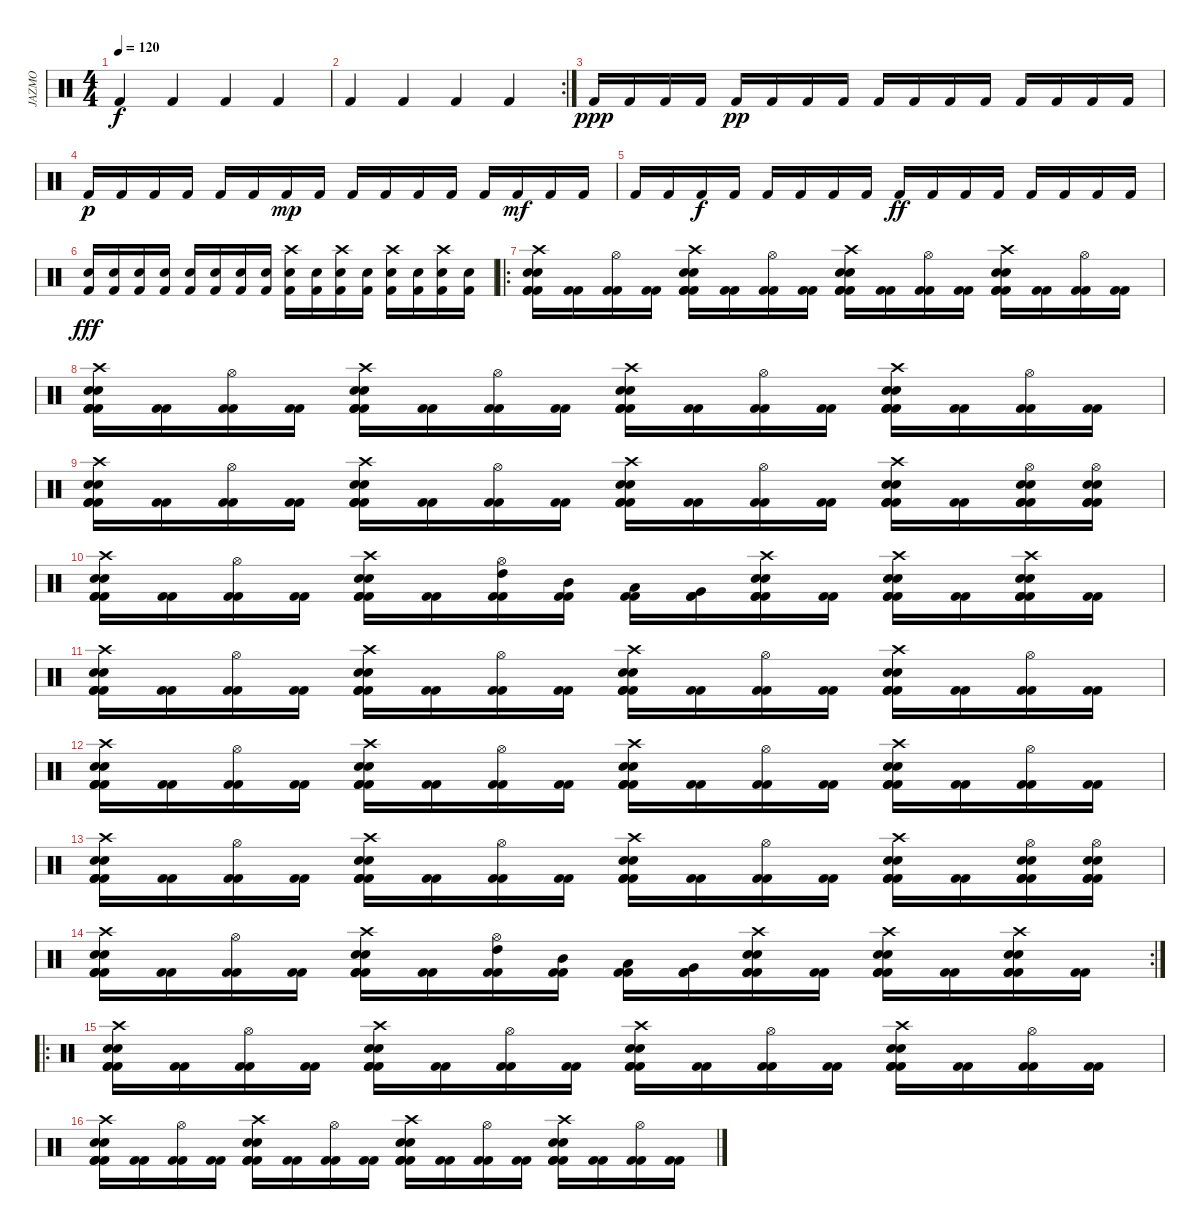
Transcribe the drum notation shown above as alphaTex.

\track ("JAZMO" "JAZMO") {instrument percussion}
\staff {score}
\articulation defaults
\ts (4 4)
\tempo 120
\clef neutral
\ks c "Kick (hit) 2".4{dy f} "Kick (hit) 2".4 "Kick (hit) 2".4 "Kick (hit) 2".4
|
\rc 2 "Kick (hit) 2".4 "Kick (hit) 2".4 "Kick (hit) 2".4 "Kick (hit) 2".4
|
"Kick (hit) 2".16{dy ppp} "Kick (hit) 2".16 "Kick (hit) 2".16 "Kick (hit) 2".16 "Kick (hit) 2".16{dy pp} "Kick (hit) 2".16 "Kick (hit) 2".16 "Kick (hit) 2".16 "Kick (hit) 2".16 "Kick (hit) 2".16 "Kick (hit) 2".16 "Kick (hit) 2".16 "Kick (hit) 2".16 "Kick (hit) 2".16 "Kick (hit) 2".16 "Kick (hit) 2".16 |
"Kick (hit) 2".16{dy p} "Kick (hit) 2".16 "Kick (hit) 2".16 "Kick (hit) 2".16 "Kick (hit) 2".16 "Kick (hit) 2".16 "Kick (hit) 2".16{dy mp} "Kick (hit) 2".16 "Kick (hit) 2".16 "Kick (hit) 2".16 "Kick (hit) 2".16 "Kick (hit) 2".16 "Kick (hit) 2".16 "Kick (hit) 2".16{dy mf} "Kick (hit) 2".16 "Kick (hit) 2".16 |
"Kick (hit) 2".16 "Kick (hit) 2".16 "Kick (hit) 2".16{dy f} "Kick (hit) 2".16 "Kick (hit) 2".16 "Kick (hit) 2".16 "Kick (hit) 2".16 "Kick (hit) 2".16 "Kick (hit) 2".16{dy ff} "Kick (hit) 2".16 "Kick (hit) 2".16 "Kick (hit) 2".16 "Kick (hit) 2".16 "Kick (hit) 2".16 "Kick (hit) 2".16 "Kick (hit) 2".16 |
("Electric Snare (hit)" "Kick (hit) 2").16{dy fff} ("Electric Snare (hit)" "Kick (hit) 2").16 ("Electric Snare (hit)" "Kick (hit) 2").16 ("Electric Snare (hit)" "Kick (hit) 2").16 ("Electric Snare (hit)" "Kick (hit) 2").16 ("Electric Snare (hit)" "Kick (hit) 2").16 ("Electric Snare (hit)" "Kick (hit) 2").16 ("Electric Snare (hit)" "Kick (hit) 2").16 ("Crash high (hit)" "Electric Snare (hit)" "Kick (hit) 2").16 ("Electric Snare (hit)" "Kick (hit) 2").16 ("Crash high (hit)" "Electric Snare (hit)" "Kick (hit) 2").16 ("Electric Snare (hit)" "Kick (hit) 2").16 ("Crash high (hit)" "Electric Snare (hit)" "Kick (hit) 2").16 ("Electric Snare (hit)" "Kick (hit) 2").16 ("Crash high (hit)" "Electric Snare (hit)" "Kick (hit) 2").16 ("Electric Snare (hit)" "Kick (hit) 2").16 |
\ro
("Electric Snare (hit)" "Kick (hit) 2" "Crash high (hit)" "Electric Snare (hit)" "Kick (hit) 2" "Kick (hit) 2").16 ("Kick (hit) 2" "Kick (hit) 2").16 ("Hi-Hat (open)" "Kick (hit) 2" "Kick (hit) 2").16 ("Kick (hit) 2" "Kick (hit) 2").16 ("Electric Snare (hit)" "Kick (hit) 2" "Crash high (hit)" "Electric Snare (hit)" "Kick (hit) 2" "Kick (hit) 2").16 ("Kick (hit) 2" "Kick (hit) 2").16 ("Hi-Hat (open)" "Kick (hit) 2" "Kick (hit) 2").16 ("Kick (hit) 2" "Kick (hit) 2").16 ("Electric Snare (hit)" "Kick (hit) 2" "Crash high (hit)" "Electric Snare (hit)" "Kick (hit) 2" "Kick (hit) 2").16 ("Kick (hit) 2" "Kick (hit) 2").16 ("Hi-Hat (open)" "Kick (hit) 2" "Kick (hit) 2").16 ("Kick (hit) 2" "Kick (hit) 2").16 ("Electric Snare (hit)" "Kick (hit) 2" "Crash high (hit)" "Electric Snare (hit)" "Kick (hit) 2" "Kick (hit) 2").16 ("Kick (hit) 2" "Kick (hit) 2").16 ("Hi-Hat (open)" "Kick (hit) 2" "Kick (hit) 2").16 ("Kick (hit) 2" "Kick (hit) 2").16 |
("Electric Snare (hit)" "Kick (hit) 2" "Crash high (hit)" "Electric Snare (hit)" "Kick (hit) 2" "Kick (hit) 2").16 ("Kick (hit) 2" "Kick (hit) 2").16 ("Hi-Hat (open)" "Kick (hit) 2" "Kick (hit) 2").16 ("Kick (hit) 2" "Kick (hit) 2").16 ("Electric Snare (hit)" "Kick (hit) 2" "Crash high (hit)" "Electric Snare (hit)" "Kick (hit) 2" "Kick (hit) 2").16 ("Kick (hit) 2" "Kick (hit) 2").16 ("Hi-Hat (open)" "Kick (hit) 2" "Kick (hit) 2").16 ("Kick (hit) 2" "Kick (hit) 2").16 ("Electric Snare (hit)" "Kick (hit) 2" "Crash high (hit)" "Electric Snare (hit)" "Kick (hit) 2" "Kick (hit) 2").16 ("Kick (hit) 2" "Kick (hit) 2").16 ("Hi-Hat (open)" "Kick (hit) 2" "Kick (hit) 2").16 ("Kick (hit) 2" "Kick (hit) 2").16 ("Electric Snare (hit)" "Kick (hit) 2" "Crash high (hit)" "Electric Snare (hit)" "Kick (hit) 2" "Kick (hit) 2").16 ("Kick (hit) 2" "Kick (hit) 2").16 ("Hi-Hat (open)" "Kick (hit) 2" "Kick (hit) 2").16 ("Kick (hit) 2" "Kick (hit) 2").16 |
("Electric Snare (hit)" "Kick (hit) 2" "Crash high (hit)" "Electric Snare (hit)" "Kick (hit) 2" "Kick (hit) 2").16 ("Kick (hit) 2" "Kick (hit) 2").16 ("Hi-Hat (open)" "Kick (hit) 2" "Kick (hit) 2").16 ("Kick (hit) 2" "Kick (hit) 2").16 ("Electric Snare (hit)" "Kick (hit) 2" "Crash high (hit)" "Electric Snare (hit)" "Kick (hit) 2" "Kick (hit) 2").16 ("Kick (hit) 2" "Kick (hit) 2").16 ("Hi-Hat (open)" "Kick (hit) 2" "Kick (hit) 2").16 ("Kick (hit) 2" "Kick (hit) 2").16 ("Electric Snare (hit)" "Kick (hit) 2" "Crash high (hit)" "Electric Snare (hit)" "Kick (hit) 2" "Kick (hit) 2").16 ("Kick (hit) 2" "Kick (hit) 2").16 ("Hi-Hat (open)" "Kick (hit) 2" "Kick (hit) 2").16 ("Kick (hit) 2" "Kick (hit) 2").16 ("Electric Snare (hit)" "Kick (hit) 2" "Crash high (hit)" "Electric Snare (hit)" "Kick (hit) 2" "Kick (hit) 2").16 ("Kick (hit) 2" "Kick (hit) 2").16 ("Electric Snare (hit)" "Kick (hit) 2" "Hi-Hat (open)" "Electric Snare (hit)" "Kick (hit) 2" "Kick (hit) 2").16 ("Electric Snare (hit)" "Kick (hit) 2" "Hi-Hat (open)" "Electric Snare (hit)" "Kick (hit) 2" "Kick (hit) 2").16 |
("Electric Snare (hit)" "Kick (hit) 2" "Crash high (hit)" "Electric Snare (hit)" "Kick (hit) 2" "Kick (hit) 2").16 ("Kick (hit) 2" "Kick (hit) 2").16 ("Hi-Hat (open)" "Kick (hit) 2" "Kick (hit) 2").16 ("Kick (hit) 2" "Kick (hit) 2").16 ("Electric Snare (hit)" "Kick (hit) 2" "Crash high (hit)" "Electric Snare (hit)" "Kick (hit) 2" "Kick (hit) 2").16 ("Kick (hit) 2" "Kick (hit) 2").16 ("High Tom (hit)" "Hi-Hat (open)" "Kick (hit) 2" "Kick (hit) 2").16 ("Mid Tom (hit)" "Kick (hit) 2" "Kick (hit) 2").16 ("Low Tom (hit)" "Kick (hit) 2" "Kick (hit) 2").16 ("Very Low Tom (hit)" "Kick (hit) 2" "Kick (hit) 2").16 ("Electric Snare (hit)" "Kick (hit) 2" "Crash high (hit)" "Electric Snare (hit)" "Kick (hit) 2" "Kick (hit) 2").16 ("Kick (hit) 2" "Kick (hit) 2").16 ("Electric Snare (hit)" "Kick (hit) 2" "Crash high (hit)" "Electric Snare (hit)" "Kick (hit) 2" "Kick (hit) 2").16 ("Kick (hit) 2" "Kick (hit) 2").16 ("Electric Snare (hit)" "Kick (hit) 2" "Crash high (hit)" "Electric Snare (hit)" "Kick (hit) 2" "Kick (hit) 2").16 ("Kick (hit) 2" "Kick (hit) 2").16 |
("Electric Snare (hit)" "Kick (hit) 2" "Crash high (hit)" "Electric Snare (hit)" "Kick (hit) 2" "Kick (hit) 2").16 ("Kick (hit) 2" "Kick (hit) 2").16 ("Hi-Hat (open)" "Kick (hit) 2" "Kick (hit) 2").16 ("Kick (hit) 2" "Kick (hit) 2").16 ("Electric Snare (hit)" "Kick (hit) 2" "Crash high (hit)" "Electric Snare (hit)" "Kick (hit) 2" "Kick (hit) 2").16 ("Kick (hit) 2" "Kick (hit) 2").16 ("Hi-Hat (open)" "Kick (hit) 2" "Kick (hit) 2").16 ("Kick (hit) 2" "Kick (hit) 2").16 ("Electric Snare (hit)" "Kick (hit) 2" "Crash high (hit)" "Electric Snare (hit)" "Kick (hit) 2" "Kick (hit) 2").16 ("Kick (hit) 2" "Kick (hit) 2").16 ("Hi-Hat (open)" "Kick (hit) 2" "Kick (hit) 2").16 ("Kick (hit) 2" "Kick (hit) 2").16 ("Electric Snare (hit)" "Kick (hit) 2" "Crash high (hit)" "Electric Snare (hit)" "Kick (hit) 2" "Kick (hit) 2").16 ("Kick (hit) 2" "Kick (hit) 2").16 ("Hi-Hat (open)" "Kick (hit) 2" "Kick (hit) 2").16 ("Kick (hit) 2" "Kick (hit) 2").16 |
("Electric Snare (hit)" "Kick (hit) 2" "Crash high (hit)" "Electric Snare (hit)" "Kick (hit) 2" "Kick (hit) 2").16 ("Kick (hit) 2" "Kick (hit) 2").16 ("Hi-Hat (open)" "Kick (hit) 2" "Kick (hit) 2").16 ("Kick (hit) 2" "Kick (hit) 2").16 ("Electric Snare (hit)" "Kick (hit) 2" "Crash high (hit)" "Electric Snare (hit)" "Kick (hit) 2" "Kick (hit) 2").16 ("Kick (hit) 2" "Kick (hit) 2").16 ("Hi-Hat (open)" "Kick (hit) 2" "Kick (hit) 2").16 ("Kick (hit) 2" "Kick (hit) 2").16 ("Electric Snare (hit)" "Kick (hit) 2" "Crash high (hit)" "Electric Snare (hit)" "Kick (hit) 2" "Kick (hit) 2").16 ("Kick (hit) 2" "Kick (hit) 2").16 ("Hi-Hat (open)" "Kick (hit) 2" "Kick (hit) 2").16 ("Kick (hit) 2" "Kick (hit) 2").16 ("Electric Snare (hit)" "Kick (hit) 2" "Crash high (hit)" "Electric Snare (hit)" "Kick (hit) 2" "Kick (hit) 2").16 ("Kick (hit) 2" "Kick (hit) 2").16 ("Hi-Hat (open)" "Kick (hit) 2" "Kick (hit) 2").16 ("Kick (hit) 2" "Kick (hit) 2").16 |
("Electric Snare (hit)" "Kick (hit) 2" "Crash high (hit)" "Electric Snare (hit)" "Kick (hit) 2" "Kick (hit) 2").16 ("Kick (hit) 2" "Kick (hit) 2").16 ("Hi-Hat (open)" "Kick (hit) 2" "Kick (hit) 2").16 ("Kick (hit) 2" "Kick (hit) 2").16 ("Electric Snare (hit)" "Kick (hit) 2" "Crash high (hit)" "Electric Snare (hit)" "Kick (hit) 2" "Kick (hit) 2").16 ("Kick (hit) 2" "Kick (hit) 2").16 ("Hi-Hat (open)" "Kick (hit) 2" "Kick (hit) 2").16 ("Kick (hit) 2" "Kick (hit) 2").16 ("Electric Snare (hit)" "Kick (hit) 2" "Crash high (hit)" "Electric Snare (hit)" "Kick (hit) 2" "Kick (hit) 2").16 ("Kick (hit) 2" "Kick (hit) 2").16 ("Hi-Hat (open)" "Kick (hit) 2" "Kick (hit) 2").16 ("Kick (hit) 2" "Kick (hit) 2").16 ("Electric Snare (hit)" "Kick (hit) 2" "Crash high (hit)" "Electric Snare (hit)" "Kick (hit) 2" "Kick (hit) 2").16 ("Kick (hit) 2" "Kick (hit) 2").16 ("Electric Snare (hit)" "Kick (hit) 2" "Hi-Hat (open)" "Electric Snare (hit)" "Kick (hit) 2" "Kick (hit) 2").16 ("Electric Snare (hit)" "Kick (hit) 2" "Hi-Hat (open)" "Electric Snare (hit)" "Kick (hit) 2" "Kick (hit) 2").16 |
\rc 2
("Electric Snare (hit)" "Kick (hit) 2" "Crash high (hit)" "Electric Snare (hit)" "Kick (hit) 2" "Kick (hit) 2").16 ("Kick (hit) 2" "Kick (hit) 2").16 ("Hi-Hat (open)" "Kick (hit) 2" "Kick (hit) 2").16 ("Kick (hit) 2" "Kick (hit) 2").16 ("Electric Snare (hit)" "Kick (hit) 2" "Crash high (hit)" "Electric Snare (hit)" "Kick (hit) 2" "Kick (hit) 2").16 ("Kick (hit) 2" "Kick (hit) 2").16 ("High Tom (hit)" "Hi-Hat (open)" "Kick (hit) 2" "Kick (hit) 2").16 ("Mid Tom (hit)" "Kick (hit) 2" "Kick (hit) 2").16 ("Low Tom (hit)" "Kick (hit) 2" "Kick (hit) 2").16 ("Very Low Tom (hit)" "Kick (hit) 2" "Kick (hit) 2").16 ("Electric Snare (hit)" "Kick (hit) 2" "Crash high (hit)" "Electric Snare (hit)" "Kick (hit) 2" "Kick (hit) 2").16 ("Kick (hit) 2" "Kick (hit) 2").16 ("Electric Snare (hit)" "Kick (hit) 2" "Crash high (hit)" "Electric Snare (hit)" "Kick (hit) 2" "Kick (hit) 2").16 ("Kick (hit) 2" "Kick (hit) 2").16 ("Electric Snare (hit)" "Kick (hit) 2" "Crash high (hit)" "Electric Snare (hit)" "Kick (hit) 2" "Kick (hit) 2").16 ("Kick (hit) 2" "Kick (hit) 2").16 |
\ro
("Electric Snare (hit)" "Kick (hit) 2" "Crash high (hit)" "Electric Snare (hit)" "Kick (hit) 2" "Kick (hit) 2").16 ("Kick (hit) 2" "Kick (hit) 2").16 ("Hi-Hat (open)" "Kick (hit) 2" "Kick (hit) 2").16 ("Kick (hit) 2" "Kick (hit) 2").16 ("Electric Snare (hit)" "Kick (hit) 2" "Crash high (hit)" "Electric Snare (hit)" "Kick (hit) 2" "Kick (hit) 2").16 ("Kick (hit) 2" "Kick (hit) 2").16 ("Hi-Hat (open)" "Kick (hit) 2" "Kick (hit) 2").16 ("Kick (hit) 2" "Kick (hit) 2").16 ("Electric Snare (hit)" "Kick (hit) 2" "Crash high (hit)" "Electric Snare (hit)" "Kick (hit) 2" "Kick (hit) 2").16 ("Kick (hit) 2" "Kick (hit) 2").16 ("Hi-Hat (open)" "Kick (hit) 2" "Kick (hit) 2").16 ("Kick (hit) 2" "Kick (hit) 2").16 ("Electric Snare (hit)" "Kick (hit) 2" "Crash high (hit)" "Electric Snare (hit)" "Kick (hit) 2" "Kick (hit) 2").16 ("Kick (hit) 2" "Kick (hit) 2").16 ("Hi-Hat (open)" "Kick (hit) 2" "Kick (hit) 2").16 ("Kick (hit) 2" "Kick (hit) 2").16 |
("Electric Snare (hit)" "Kick (hit) 2" "Crash high (hit)" "Electric Snare (hit)" "Kick (hit) 2" "Kick (hit) 2").16 ("Kick (hit) 2" "Kick (hit) 2").16 ("Hi-Hat (open)" "Kick (hit) 2" "Kick (hit) 2").16 ("Kick (hit) 2" "Kick (hit) 2").16 ("Electric Snare (hit)" "Kick (hit) 2" "Crash high (hit)" "Electric Snare (hit)" "Kick (hit) 2" "Kick (hit) 2").16 ("Kick (hit) 2" "Kick (hit) 2").16 ("Hi-Hat (open)" "Kick (hit) 2" "Kick (hit) 2").16 ("Kick (hit) 2" "Kick (hit) 2").16 ("Electric Snare (hit)" "Kick (hit) 2" "Crash high (hit)" "Electric Snare (hit)" "Kick (hit) 2" "Kick (hit) 2").16 ("Kick (hit) 2" "Kick (hit) 2").16 ("Hi-Hat (open)" "Kick (hit) 2" "Kick (hit) 2").16 ("Kick (hit) 2" "Kick (hit) 2").16 ("Electric Snare (hit)" "Kick (hit) 2" "Crash high (hit)" "Electric Snare (hit)" "Kick (hit) 2" "Kick (hit) 2").16 ("Kick (hit) 2" "Kick (hit) 2").16 ("Hi-Hat (open)" "Kick (hit) 2" "Kick (hit) 2").16 ("Kick (hit) 2" "Kick (hit) 2").16
